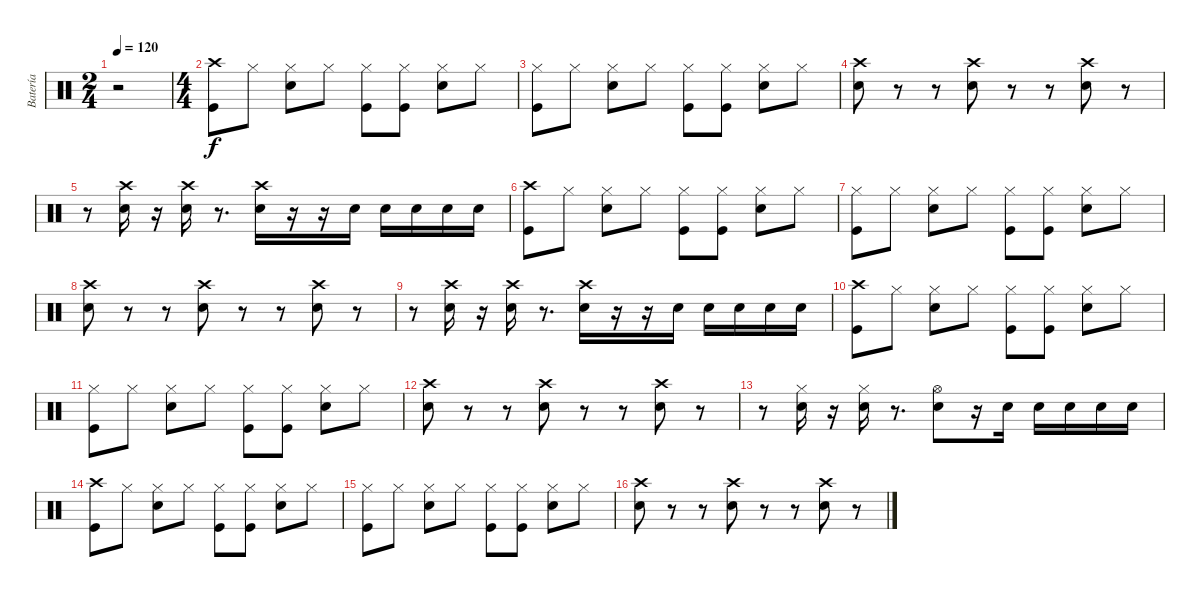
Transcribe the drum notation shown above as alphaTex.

\track ("Batería" "Batería") {instrument percussion}
\staff {score}
\articulation defaults
\ts (2 4)
\tempo 120
\clef neutral
\ks c
r.2{dy f} |
\ts (4 4)
("Crash high (hit)" "Kick (hit)").8 "Hi-Hat (closed)".8 ("Electric Snare (hit)" "Hi-Hat (closed)").8 "Hi-Hat (closed)".8 ("Kick (hit)" "Hi-Hat (closed)").8 ("Kick (hit)" "Hi-Hat (closed)").8 ("Electric Snare (hit)" "Hi-Hat (closed)").8 "Hi-Hat (closed)".8 |
("Kick (hit)" "Hi-Hat (closed)").8 "Hi-Hat (closed)".8 ("Electric Snare (hit)" "Hi-Hat (closed)").8 "Hi-Hat (closed)".8 ("Kick (hit)" "Hi-Hat (closed)").8 ("Kick (hit)" "Hi-Hat (closed)").8 ("Electric Snare (hit)" "Hi-Hat (closed)").8 "Hi-Hat (closed)".8 |
("Crash high (hit)" "Electric Snare (hit)").8 r.8 r.8 ("Crash high (hit)" "Electric Snare (hit)").8 r.8 r.8 ("Crash high (hit)" "Electric Snare (hit)").8 r.8 |
r.8 ("Crash high (hit)" "Electric Snare (hit)").16 r.16 ("Crash high (hit)" "Electric Snare (hit)").16 r.8{d} ("Crash high (hit)" "Electric Snare (hit)").16 r.16 r.16 "Electric Snare (hit)".16 "Electric Snare (hit)".16 "Electric Snare (hit)".16 "Electric Snare (hit)".16 "Electric Snare (hit)".16 |
("Crash high (hit)" "Kick (hit)").8 "Hi-Hat (closed)".8 ("Electric Snare (hit)" "Hi-Hat (closed)").8 "Hi-Hat (closed)".8 ("Kick (hit)" "Hi-Hat (closed)").8 ("Kick (hit)" "Hi-Hat (closed)").8 ("Electric Snare (hit)" "Hi-Hat (closed)").8 "Hi-Hat (closed)".8 |
("Kick (hit)" "Hi-Hat (closed)").8 "Hi-Hat (closed)".8 ("Electric Snare (hit)" "Hi-Hat (closed)").8 "Hi-Hat (closed)".8 ("Kick (hit)" "Hi-Hat (closed)").8 ("Kick (hit)" "Hi-Hat (closed)").8 ("Electric Snare (hit)" "Hi-Hat (closed)").8 "Hi-Hat (closed)".8 |
("Crash high (hit)" "Electric Snare (hit)").8 r.8 r.8 ("Crash high (hit)" "Electric Snare (hit)").8 r.8 r.8 ("Crash high (hit)" "Electric Snare (hit)").8 r.8 |
r.8 ("Crash high (hit)" "Electric Snare (hit)").16 r.16 ("Crash high (hit)" "Electric Snare (hit)").16 r.8{d} ("Crash high (hit)" "Electric Snare (hit)").16 r.16 r.16 "Electric Snare (hit)".16 "Electric Snare (hit)".16 "Electric Snare (hit)".16 "Electric Snare (hit)".16 "Electric Snare (hit)".16 |
("Crash high (hit)" "Kick (hit)").8 "Hi-Hat (closed)".8 ("Electric Snare (hit)" "Hi-Hat (closed)").8 "Hi-Hat (closed)".8 ("Kick (hit)" "Hi-Hat (closed)").8 ("Kick (hit)" "Hi-Hat (closed)").8 ("Electric Snare (hit)" "Hi-Hat (closed)").8 "Hi-Hat (closed)".8 |
("Kick (hit)" "Hi-Hat (closed)").8 "Hi-Hat (closed)".8 ("Electric Snare (hit)" "Hi-Hat (closed)").8 "Hi-Hat (closed)".8 ("Kick (hit)" "Hi-Hat (closed)").8 ("Kick (hit)" "Hi-Hat (closed)").8 ("Electric Snare (hit)" "Hi-Hat (closed)").8 "Hi-Hat (closed)".8 |
("Crash high (hit)" "Electric Snare (hit)").8 r.8 r.8 ("Crash high (hit)" "Electric Snare (hit)").8 r.8 r.8 ("Crash high (hit)" "Electric Snare (hit)").8 r.8 |
r.8 ("Hi-Hat (closed)" "Electric Snare (hit)").16 r.16 ("Hi-Hat (closed)" "Electric Snare (hit)").16 r.8{d} ("Hi-Hat (open)" "Electric Snare (hit)").8 r.16 "Electric Snare (hit)".16 "Electric Snare (hit)".16 "Electric Snare (hit)".16 "Electric Snare (hit)".16 "Electric Snare (hit)".16 |
("Crash high (hit)" "Kick (hit)").8 "Hi-Hat (closed)".8 ("Electric Snare (hit)" "Hi-Hat (closed)").8 "Hi-Hat (closed)".8 ("Kick (hit)" "Hi-Hat (closed)").8 ("Kick (hit)" "Hi-Hat (closed)").8 ("Electric Snare (hit)" "Hi-Hat (closed)").8 "Hi-Hat (closed)".8 |
("Kick (hit)" "Hi-Hat (closed)").8 "Hi-Hat (closed)".8 ("Electric Snare (hit)" "Hi-Hat (closed)").8 "Hi-Hat (closed)".8 ("Kick (hit)" "Hi-Hat (closed)").8 ("Kick (hit)" "Hi-Hat (closed)").8 ("Electric Snare (hit)" "Hi-Hat (closed)").8 "Hi-Hat (closed)".8 |
("Crash high (hit)" "Electric Snare (hit)").8 r.8 r.8 ("Crash high (hit)" "Electric Snare (hit)").8 r.8 r.8 ("Crash high (hit)" "Electric Snare (hit)").8 r.8
